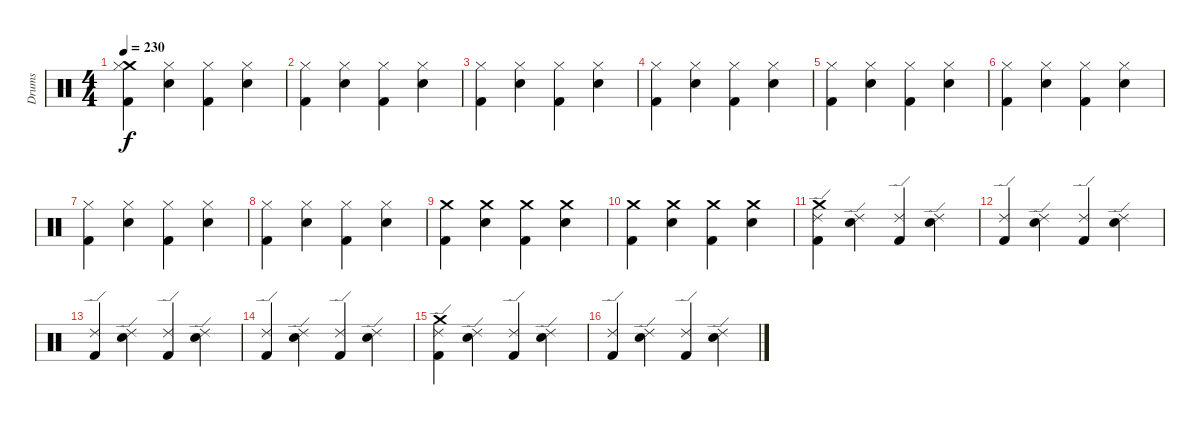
\track ("Drums" "Drums") {instrument percussion}
\staff {score}
\articulation defaults
\ts (4 4)
\tempo 230
\clef neutral
\ks c
("Crash medium (hit)" "Hi-Hat (closed)" "Kick (hit) 2").4{dy f} ("Hi-Hat (closed)" "Snare (hit) 2").4 ("Hi-Hat (closed)" "Kick (hit) 2").4 ("Hi-Hat (closed)" "Snare (hit) 2").4 |
("Hi-Hat (closed)" "Kick (hit) 2").4 ("Hi-Hat (closed)" "Snare (hit) 2").4 ("Hi-Hat (closed)" "Kick (hit) 2").4 ("Hi-Hat (closed)" "Snare (hit) 2").4 |
("Hi-Hat (closed)" "Kick (hit) 2").4 ("Hi-Hat (closed)" "Snare (hit) 2").4 ("Hi-Hat (closed)" "Kick (hit) 2").4 ("Hi-Hat (closed)" "Snare (hit) 2").4 |
("Hi-Hat (closed)" "Kick (hit) 2").4 ("Hi-Hat (closed)" "Snare (hit) 2").4 ("Hi-Hat (closed)" "Kick (hit) 2").4 ("Hi-Hat (closed)" "Snare (hit) 2").4 |
("Hi-Hat (closed)" "Kick (hit) 2").4 ("Hi-Hat (closed)" "Snare (hit) 2").4 ("Hi-Hat (closed)" "Kick (hit) 2").4 ("Hi-Hat (closed)" "Snare (hit) 2").4 |
("Hi-Hat (closed)" "Kick (hit) 2").4 ("Hi-Hat (closed)" "Snare (hit) 2").4 ("Hi-Hat (closed)" "Kick (hit) 2").4 ("Hi-Hat (closed)" "Snare (hit) 2").4 |
("Hi-Hat (closed)" "Kick (hit) 2").4 ("Hi-Hat (closed)" "Snare (hit) 2").4 ("Hi-Hat (closed)" "Kick (hit) 2").4 ("Hi-Hat (closed)" "Snare (hit) 2").4 |
("Hi-Hat (closed)" "Kick (hit) 2").4 ("Hi-Hat (closed)" "Snare (hit) 2").4 ("Hi-Hat (closed)" "Kick (hit) 2").4 ("Hi-Hat (closed)" "Snare (hit) 2").4 |
("Crash medium (hit)" "Kick (hit) 2").4 ("Crash medium (hit)" "Snare (hit) 2").4 ("Crash medium (hit)" "Kick (hit) 2").4 ("Crash medium (hit)" "Snare (hit) 2").4 |
("Crash medium (hit)" "Kick (hit) 2").4 ("Crash medium (hit)" "Snare (hit) 2").4 ("Crash medium (hit)" "Kick (hit) 2").4 ("Crash medium (hit)" "Snare (hit) 2").4 |
("Crash medium (hit)" "Ride (edge) 2" "Kick (hit) 2").4 ("Ride (edge) 2" "Snare (hit) 2").4 ("Ride (edge) 2" "Kick (hit) 2").4 ("Ride (edge) 2" "Snare (hit) 2").4 |
("Ride (edge) 2" "Kick (hit) 2").4 ("Ride (edge) 2" "Snare (hit) 2").4 ("Ride (edge) 2" "Kick (hit) 2").4 ("Ride (edge) 2" "Snare (hit) 2").4 |
("Ride (edge) 2" "Kick (hit) 2").4 ("Ride (edge) 2" "Snare (hit) 2").4 ("Ride (edge) 2" "Kick (hit) 2").4 ("Ride (edge) 2" "Snare (hit) 2").4 |
("Ride (edge) 2" "Kick (hit) 2").4 ("Ride (edge) 2" "Snare (hit) 2").4 ("Ride (edge) 2" "Kick (hit) 2").4 ("Ride (edge) 2" "Snare (hit) 2").4 |
("Crash medium (hit)" "Ride (edge) 2" "Kick (hit) 2").4 ("Ride (edge) 2" "Snare (hit) 2").4 ("Ride (edge) 2" "Kick (hit) 2").4 ("Ride (edge) 2" "Snare (hit) 2").4 |
("Ride (edge) 2" "Kick (hit) 2").4 ("Ride (edge) 2" "Snare (hit) 2").4 ("Ride (edge) 2" "Kick (hit) 2").4 ("Ride (edge) 2" "Snare (hit) 2").4
